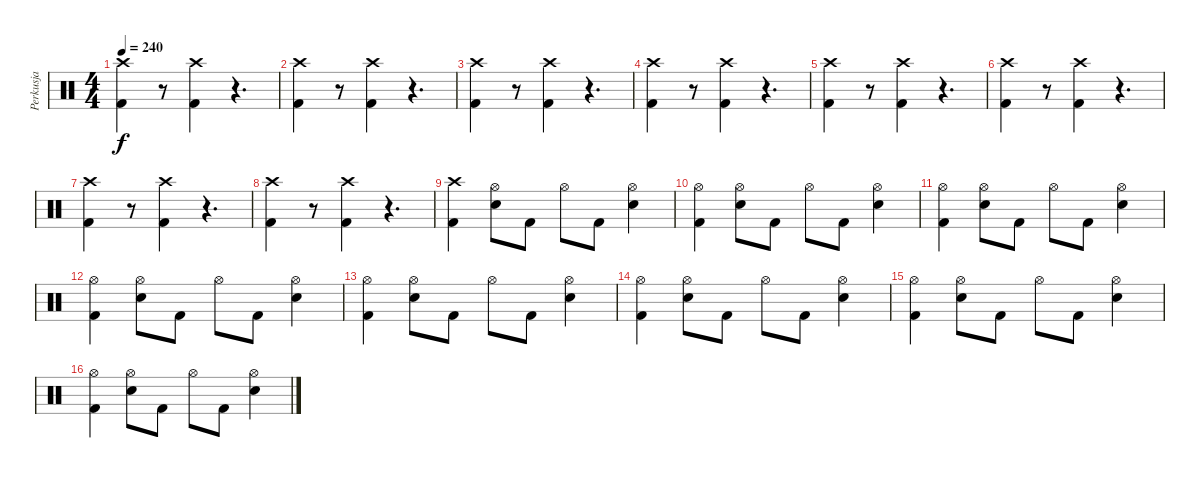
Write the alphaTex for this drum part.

\track ("Perkusja" "Perkusja") {instrument percussion}
\staff {score}
\articulation defaults
\ts (4 4)
\tempo 240
\clef neutral
\ks c
("Crash high (hit)" "Kick (hit) 2").4{dy f} r.8 ("Crash high (hit)" "Kick (hit) 2").4 r.4{d} |
("Crash high (hit)" "Kick (hit) 2").4 r.8 ("Crash high (hit)" "Kick (hit) 2").4 r.4{d} |
("Crash high (hit)" "Kick (hit) 2").4 r.8 ("Crash high (hit)" "Kick (hit) 2").4 r.4{d} |
("Crash high (hit)" "Kick (hit) 2").4 r.8 ("Crash high (hit)" "Kick (hit) 2").4 r.4{d} |
("Crash high (hit)" "Kick (hit) 2").4 r.8 ("Crash high (hit)" "Kick (hit) 2").4 r.4{d} |
("Crash high (hit)" "Kick (hit) 2").4 r.8 ("Crash high (hit)" "Kick (hit) 2").4 r.4{d} |
("Crash high (hit)" "Kick (hit) 2").4 r.8 ("Crash high (hit)" "Kick (hit) 2").4 r.4{d} |
("Crash high (hit)" "Kick (hit) 2").4 r.8 ("Crash high (hit)" "Kick (hit) 2").4 r.4{d} |
("Crash high (hit)" "Kick (hit) 2").4 ("Hi-Hat (open)" "Electric Snare (hit)").8 "Kick (hit) 2".8 "Hi-Hat (open)".8 "Kick (hit) 2".8 ("Hi-Hat (open)" "Electric Snare (hit)").4 |
("Hi-Hat (open)" "Kick (hit) 2").4 ("Hi-Hat (open)" "Electric Snare (hit)").8 "Kick (hit) 2".8 "Hi-Hat (open)".8 "Kick (hit) 2".8 ("Hi-Hat (open)" "Electric Snare (hit)").4 |
("Hi-Hat (open)" "Kick (hit) 2").4 ("Hi-Hat (open)" "Electric Snare (hit)").8 "Kick (hit) 2".8 "Hi-Hat (open)".8 "Kick (hit) 2".8 ("Hi-Hat (open)" "Electric Snare (hit)").4 |
("Hi-Hat (open)" "Kick (hit) 2").4 ("Hi-Hat (open)" "Electric Snare (hit)").8 "Kick (hit) 2".8 "Hi-Hat (open)".8 "Kick (hit) 2".8 ("Hi-Hat (open)" "Electric Snare (hit)").4 |
("Hi-Hat (open)" "Kick (hit) 2").4 ("Hi-Hat (open)" "Electric Snare (hit)").8 "Kick (hit) 2".8 "Hi-Hat (open)".8 "Kick (hit) 2".8 ("Hi-Hat (open)" "Electric Snare (hit)").4 |
("Hi-Hat (open)" "Kick (hit) 2").4 ("Hi-Hat (open)" "Electric Snare (hit)").8 "Kick (hit) 2".8 "Hi-Hat (open)".8 "Kick (hit) 2".8 ("Hi-Hat (open)" "Electric Snare (hit)").4 |
("Hi-Hat (open)" "Kick (hit) 2").4 ("Hi-Hat (open)" "Electric Snare (hit)").8 "Kick (hit) 2".8 "Hi-Hat (open)".8 "Kick (hit) 2".8 ("Hi-Hat (open)" "Electric Snare (hit)").4 |
("Hi-Hat (open)" "Kick (hit) 2").4 ("Hi-Hat (open)" "Electric Snare (hit)").8 "Kick (hit) 2".8 "Hi-Hat (open)".8 "Kick (hit) 2".8 ("Hi-Hat (open)" "Electric Snare (hit)").4
